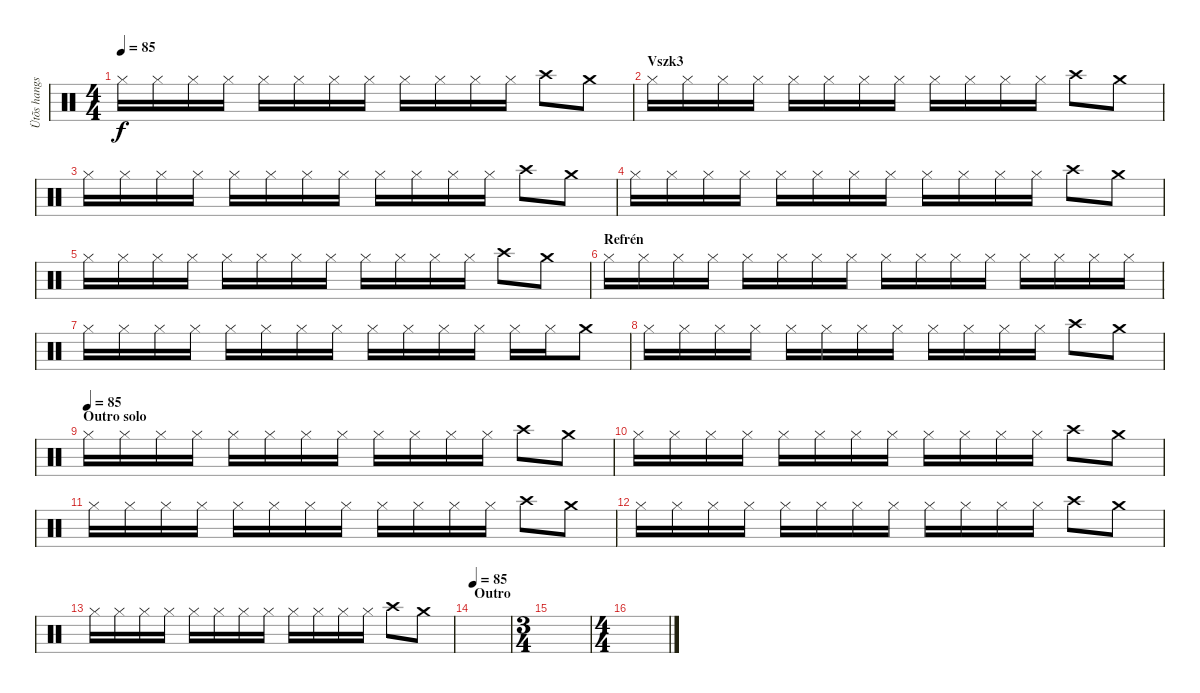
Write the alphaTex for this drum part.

\track ("Ütõs hangszer" "Ütõs hangs") {instrument percussion}
\staff {score}
\articulation defaults
\ts (4 4)
\tempo 85
\clef neutral
\ks c "Hi-Hat (closed)".16{dy f} "Hi-Hat (closed)".16 "Hi-Hat (closed)".16 "Hi-Hat (closed)".16 "Hi-Hat (closed)".16 "Hi-Hat (closed)".16 "Hi-Hat (closed)".16 "Hi-Hat (closed)".16 "Hi-Hat (closed)".16 "Hi-Hat (closed)".16 "Hi-Hat (closed)".16 "Hi-Hat (closed)".16 "Crash high (hit)".8 "Crash medium (hit)".8
|
\section ("" "Vszk3")
"Hi-Hat (closed)".16 "Hi-Hat (closed)".16 "Hi-Hat (closed)".16 "Hi-Hat (closed)".16 "Hi-Hat (closed)".16 "Hi-Hat (closed)".16 "Hi-Hat (closed)".16 "Hi-Hat (closed)".16 "Hi-Hat (closed)".16 "Hi-Hat (closed)".16 "Hi-Hat (closed)".16 "Hi-Hat (closed)".16 "Crash high (hit)".8 "Crash medium (hit)".8 |
"Hi-Hat (closed)".16 "Hi-Hat (closed)".16 "Hi-Hat (closed)".16 "Hi-Hat (closed)".16 "Hi-Hat (closed)".16 "Hi-Hat (closed)".16 "Hi-Hat (closed)".16 "Hi-Hat (closed)".16 "Hi-Hat (closed)".16 "Hi-Hat (closed)".16 "Hi-Hat (closed)".16 "Hi-Hat (closed)".16 "Crash high (hit)".8 "Crash medium (hit)".8 |
"Hi-Hat (closed)".16 "Hi-Hat (closed)".16 "Hi-Hat (closed)".16 "Hi-Hat (closed)".16 "Hi-Hat (closed)".16 "Hi-Hat (closed)".16 "Hi-Hat (closed)".16 "Hi-Hat (closed)".16 "Hi-Hat (closed)".16 "Hi-Hat (closed)".16 "Hi-Hat (closed)".16 "Hi-Hat (closed)".16 "Crash high (hit)".8 "Crash medium (hit)".8 |
"Hi-Hat (closed)".16 "Hi-Hat (closed)".16 "Hi-Hat (closed)".16 "Hi-Hat (closed)".16 "Hi-Hat (closed)".16 "Hi-Hat (closed)".16 "Hi-Hat (closed)".16 "Hi-Hat (closed)".16 "Hi-Hat (closed)".16 "Hi-Hat (closed)".16 "Hi-Hat (closed)".16 "Hi-Hat (closed)".16 "Crash high (hit)".8 "Crash medium (hit)".8 |
\section ("" "Refrén")
"Hi-Hat (closed)".16 "Hi-Hat (closed)".16 "Hi-Hat (closed)".16 "Hi-Hat (closed)".16 "Hi-Hat (closed)".16 "Hi-Hat (closed)".16 "Hi-Hat (closed)".16 "Hi-Hat (closed)".16 "Hi-Hat (closed)".16 "Hi-Hat (closed)".16 "Hi-Hat (closed)".16 "Hi-Hat (closed)".16 "Hi-Hat (closed)".16 "Hi-Hat (closed)".16 "Hi-Hat (closed)".16 "Hi-Hat (closed)".16 |
"Hi-Hat (closed)".16 "Hi-Hat (closed)".16 "Hi-Hat (closed)".16 "Hi-Hat (closed)".16 "Hi-Hat (closed)".16 "Hi-Hat (closed)".16 "Hi-Hat (closed)".16 "Hi-Hat (closed)".16 "Hi-Hat (closed)".16 "Hi-Hat (closed)".16 "Hi-Hat (closed)".16 "Hi-Hat (closed)".16 "Hi-Hat (closed)".16 "Hi-Hat (closed)".16 "Crash medium (hit)".8 |
"Hi-Hat (closed)".16 "Hi-Hat (closed)".16 "Hi-Hat (closed)".16 "Hi-Hat (closed)".16 "Hi-Hat (closed)".16 "Hi-Hat (closed)".16 "Hi-Hat (closed)".16 "Hi-Hat (closed)".16 "Hi-Hat (closed)".16 "Hi-Hat (closed)".16 "Hi-Hat (closed)".16 "Hi-Hat (closed)".16 "Crash high (hit)".8 "Crash medium (hit)".8 |
\section ("" "Outro solo")
\tempo (85)
"Hi-Hat (closed)".16 "Hi-Hat (closed)".16 "Hi-Hat (closed)".16 "Hi-Hat (closed)".16 "Hi-Hat (closed)".16 "Hi-Hat (closed)".16 "Hi-Hat (closed)".16 "Hi-Hat (closed)".16 "Hi-Hat (closed)".16 "Hi-Hat (closed)".16 "Hi-Hat (closed)".16 "Hi-Hat (closed)".16 "Crash high (hit)".8 "Crash medium (hit)".8 |
"Hi-Hat (closed)".16 "Hi-Hat (closed)".16 "Hi-Hat (closed)".16 "Hi-Hat (closed)".16 "Hi-Hat (closed)".16 "Hi-Hat (closed)".16 "Hi-Hat (closed)".16 "Hi-Hat (closed)".16 "Hi-Hat (closed)".16 "Hi-Hat (closed)".16 "Hi-Hat (closed)".16 "Hi-Hat (closed)".16 "Crash high (hit)".8 "Crash medium (hit)".8 |
"Hi-Hat (closed)".16 "Hi-Hat (closed)".16 "Hi-Hat (closed)".16 "Hi-Hat (closed)".16 "Hi-Hat (closed)".16 "Hi-Hat (closed)".16 "Hi-Hat (closed)".16 "Hi-Hat (closed)".16 "Hi-Hat (closed)".16 "Hi-Hat (closed)".16 "Hi-Hat (closed)".16 "Hi-Hat (closed)".16 "Crash high (hit)".8 "Crash medium (hit)".8 |
"Hi-Hat (closed)".16 "Hi-Hat (closed)".16 "Hi-Hat (closed)".16 "Hi-Hat (closed)".16 "Hi-Hat (closed)".16 "Hi-Hat (closed)".16 "Hi-Hat (closed)".16 "Hi-Hat (closed)".16 "Hi-Hat (closed)".16 "Hi-Hat (closed)".16 "Hi-Hat (closed)".16 "Hi-Hat (closed)".16 "Crash high (hit)".8 "Crash medium (hit)".8 |
"Hi-Hat (closed)".16 "Hi-Hat (closed)".16 "Hi-Hat (closed)".16 "Hi-Hat (closed)".16 "Hi-Hat (closed)".16 "Hi-Hat (closed)".16 "Hi-Hat (closed)".16 "Hi-Hat (closed)".16 "Hi-Hat (closed)".16 "Hi-Hat (closed)".16 "Hi-Hat (closed)".16 "Hi-Hat (closed)".16 "Crash high (hit)".8 "Crash medium (hit)".8 |
\section ("" "Outro")
\tempo 85
|
\ts (3 4)
|
\ts (4 4)
